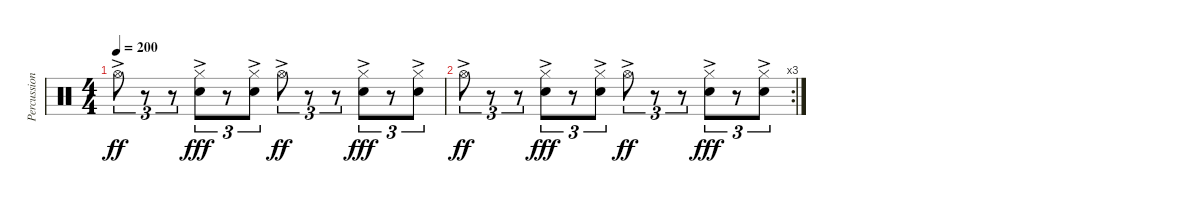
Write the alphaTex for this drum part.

\track ("Percussion" "Percussion") {instrument percussion}
\staff {score}
\articulation defaults
\ts (4 4)
\tempo 200
\clef neutral
\ks c "Hi-Hat (open)"{ac}.8{tu (3 2) dy ff}
r.8{tu (3 2)} r.8{tu (3 2)} ("Hi-Hat (closed)"{ac} "Snare (hit) 2"{ac}).8{tu (3 2) dy fff} r.8{tu (3 2)} ("Hi-Hat (closed)"{ac} "Snare (hit) 2"{ac}).8{tu (3 2)} "Hi-Hat (open)"{ac}.8{tu (3 2) dy ff} r.8{tu (3 2)} r.8{tu (3 2)} ("Hi-Hat (closed)"{ac} "Snare (hit) 2"{ac}).8{tu (3 2) dy fff} r.8{tu (3 2)} ("Hi-Hat (closed)"{ac} "Snare (hit) 2"{ac}).8{tu (3 2)} |
\rc 3 "Hi-Hat (open)"{ac}.8{tu (3 2) dy ff}
r.8{tu (3 2)} r.8{tu (3 2)} ("Hi-Hat (closed)"{ac} "Snare (hit) 2"{ac}).8{tu (3 2) dy fff} r.8{tu (3 2)} ("Hi-Hat (closed)"{ac} "Snare (hit) 2"{ac}).8{tu (3 2)} "Hi-Hat (open)"{ac}.8{tu (3 2) dy ff} r.8{tu (3 2)} r.8{tu (3 2)} ("Hi-Hat (closed)"{ac} "Snare (hit) 2"{ac}).8{tu (3 2) dy fff} r.8{tu (3 2)} ("Hi-Hat (closed)"{ac} "Snare (hit) 2"{ac}).8{tu (3 2)}
